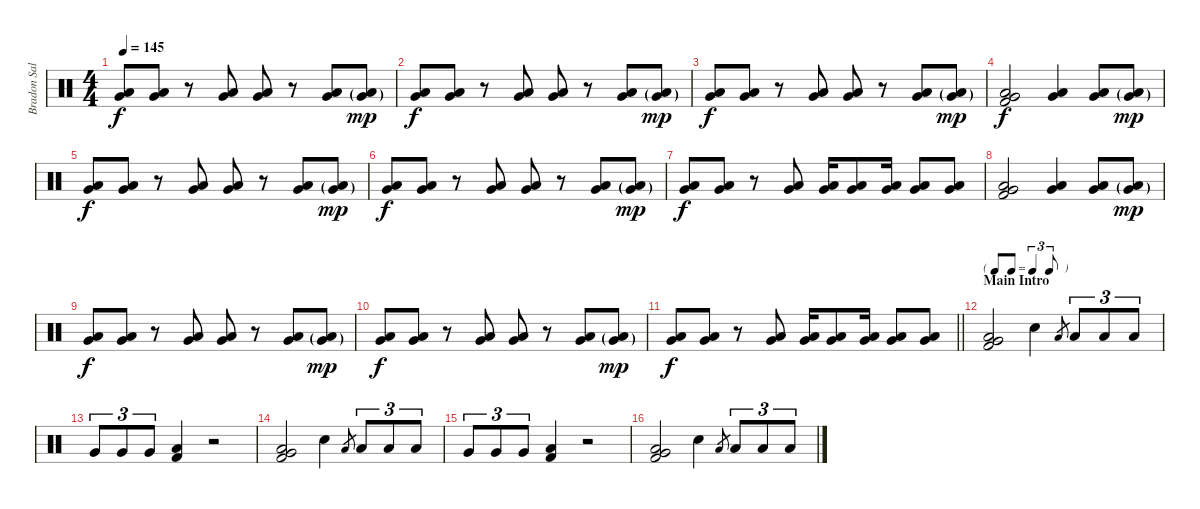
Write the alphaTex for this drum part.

\track ("Bradon Saller" "Bradon Sal") {instrument percussion}
\staff {score}
\articulation defaults
\ts (4 4)
\tempo 145
\clef neutral
\ks c
("Very Low Tom (hit)" "Low Floor Tom (hit)").8{dy f} ("Very Low Tom (hit)" "Low Floor Tom (hit)").8 r.8 ("Very Low Tom (hit)" "Low Floor Tom (hit)").8 ("Very Low Tom (hit)" "Low Floor Tom (hit)").8 r.8 ("Very Low Tom (hit)" "Low Floor Tom (hit)").8 ("Very Low Tom (hit)"{g} "Low Floor Tom (hit)"{g}).8{dy mp} |
("Very Low Tom (hit)" "Low Floor Tom (hit)").8{dy f} ("Very Low Tom (hit)" "Low Floor Tom (hit)").8 r.8 ("Very Low Tom (hit)" "Low Floor Tom (hit)").8 ("Very Low Tom (hit)" "Low Floor Tom (hit)").8 r.8 ("Very Low Tom (hit)" "Low Floor Tom (hit)").8 ("Very Low Tom (hit)"{g} "Low Floor Tom (hit)"{g}).8{dy mp} |
("Very Low Tom (hit)" "Low Floor Tom (hit)").8{dy f} ("Very Low Tom (hit)" "Low Floor Tom (hit)").8 r.8 ("Very Low Tom (hit)" "Low Floor Tom (hit)").8 ("Very Low Tom (hit)" "Low Floor Tom (hit)").8 r.8 ("Very Low Tom (hit)" "Low Floor Tom (hit)").8 ("Very Low Tom (hit)"{g} "Low Floor Tom (hit)"{g}).8{dy mp} |
("Very Low Tom (hit)" "Low Floor Tom (hit)" "Kick (hit) 2").2{dy f} ("Very Low Tom (hit)" "Low Floor Tom (hit)").4 ("Very Low Tom (hit)" "Low Floor Tom (hit)").8 ("Very Low Tom (hit)"{g} "Low Floor Tom (hit)"{g}).8{dy mp} |
("Very Low Tom (hit)" "Low Floor Tom (hit)").8{dy f} ("Very Low Tom (hit)" "Low Floor Tom (hit)").8 r.8 ("Very Low Tom (hit)" "Low Floor Tom (hit)").8 ("Very Low Tom (hit)" "Low Floor Tom (hit)").8 r.8 ("Very Low Tom (hit)" "Low Floor Tom (hit)").8 ("Very Low Tom (hit)"{g} "Low Floor Tom (hit)"{g}).8{dy mp} |
("Very Low Tom (hit)" "Low Floor Tom (hit)").8{dy f} ("Very Low Tom (hit)" "Low Floor Tom (hit)").8 r.8 ("Very Low Tom (hit)" "Low Floor Tom (hit)").8 ("Very Low Tom (hit)" "Low Floor Tom (hit)").8 r.8 ("Very Low Tom (hit)" "Low Floor Tom (hit)").8 ("Very Low Tom (hit)"{g} "Low Floor Tom (hit)"{g}).8{dy mp} |
("Very Low Tom (hit)" "Low Floor Tom (hit)").8{dy f} ("Very Low Tom (hit)" "Low Floor Tom (hit)").8 r.8 ("Very Low Tom (hit)" "Low Floor Tom (hit)").8 ("Very Low Tom (hit)" "Low Floor Tom (hit)").16 ("Very Low Tom (hit)" "Low Floor Tom (hit)").8 ("Very Low Tom (hit)" "Low Floor Tom (hit)").16 ("Very Low Tom (hit)" "Low Floor Tom (hit)").8 ("Very Low Tom (hit)" "Low Floor Tom (hit)").8 |
("Very Low Tom (hit)" "Low Floor Tom (hit)" "Kick (hit) 2").2 ("Very Low Tom (hit)" "Low Floor Tom (hit)").4 ("Very Low Tom (hit)" "Low Floor Tom (hit)").8 ("Very Low Tom (hit)"{g} "Low Floor Tom (hit)"{g}).8{dy mp} |
("Very Low Tom (hit)" "Low Floor Tom (hit)").8{dy f} ("Very Low Tom (hit)" "Low Floor Tom (hit)").8 r.8 ("Very Low Tom (hit)" "Low Floor Tom (hit)").8 ("Very Low Tom (hit)" "Low Floor Tom (hit)").8 r.8 ("Very Low Tom (hit)" "Low Floor Tom (hit)").8 ("Very Low Tom (hit)"{g} "Low Floor Tom (hit)"{g}).8{dy mp} |
("Very Low Tom (hit)" "Low Floor Tom (hit)").8{dy f} ("Very Low Tom (hit)" "Low Floor Tom (hit)").8 r.8 ("Very Low Tom (hit)" "Low Floor Tom (hit)").8 ("Very Low Tom (hit)" "Low Floor Tom (hit)").8 r.8 ("Very Low Tom (hit)" "Low Floor Tom (hit)").8 ("Very Low Tom (hit)"{g} "Low Floor Tom (hit)"{g}).8{dy mp} |
\barLineRight lightlight
("Very Low Tom (hit)" "Low Floor Tom (hit)").8{dy f} ("Very Low Tom (hit)" "Low Floor Tom (hit)").8 r.8 ("Very Low Tom (hit)" "Low Floor Tom (hit)").8 ("Very Low Tom (hit)" "Low Floor Tom (hit)").16 ("Very Low Tom (hit)" "Low Floor Tom (hit)").8 ("Very Low Tom (hit)" "Low Floor Tom (hit)").16 ("Very Low Tom (hit)" "Low Floor Tom (hit)").8 ("Very Low Tom (hit)" "Low Floor Tom (hit)").8 |
\tf triplet8th
\section ("" "Main Intro")
("Very Low Tom (hit)" "Low Floor Tom (hit)" "Kick (hit) 2").2 "Electric Snare (hit)".4 "Low Tom (hit)".8{gr} "Low Tom (hit)".8{tu (3 2)} "Low Tom (hit)".8{tu (3 2)} "Low Tom (hit)".8{tu (3 2)} |
"Very Low Tom (hit)".8{tu (3 2)} "Very Low Tom (hit)".8{tu (3 2)} "Very Low Tom (hit)".8{tu (3 2)} ("Low Floor Tom (hit)" "Kick (hit) 2").4 r.2 |
("Very Low Tom (hit)" "Low Floor Tom (hit)" "Kick (hit) 2").2 "Electric Snare (hit)".4 "Low Tom (hit)".8{gr} "Low Tom (hit)".8{tu (3 2)} "Low Tom (hit)".8{tu (3 2)} "Low Tom (hit)".8{tu (3 2)} |
"Very Low Tom (hit)".8{tu (3 2)} "Very Low Tom (hit)".8{tu (3 2)} "Very Low Tom (hit)".8{tu (3 2)} ("Low Floor Tom (hit)" "Kick (hit) 2").4 r.2 |
("Very Low Tom (hit)" "Low Floor Tom (hit)" "Kick (hit) 2").2 "Electric Snare (hit)".4 "Low Tom (hit)".8{gr} "Low Tom (hit)".8{tu (3 2)} "Low Tom (hit)".8{tu (3 2)} "Low Tom (hit)".8{tu (3 2)}
